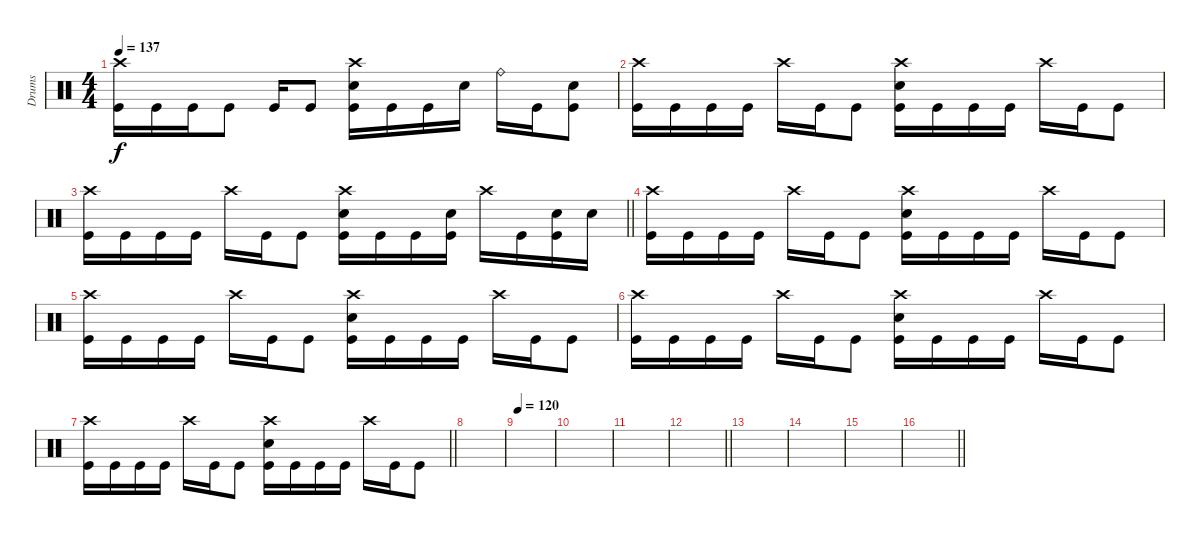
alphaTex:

\track ("Drums" "Drums") {instrument percussion}
\staff
\articulation defaults
\ts (4 4)
\tempo 137
\clef neutral
\ks c
("Crash high (hit)" "Kick (hit)").16{dy f} "Kick (hit)".16 "Kick (hit)".16 "Kick (hit)".8 "Kick (hit)".16 "Kick (hit)".8 ("Crash high (hit)" "Electric Snare (hit)" "Kick (hit)").16 "Kick (hit)".16 "Kick (hit)".16 "Electric Snare (hit)".16 "Ride (bell)".16 "Kick (hit)".16 ("Electric Snare (hit)" "Kick (hit)").8 |
("Crash high (hit)" "Kick (hit)").16 "Kick (hit)".16 "Kick (hit)".16 "Kick (hit)".16 "Crash high (hit)".16 "Kick (hit)".16 "Kick (hit)".8 ("Crash high (hit)" "Electric Snare (hit)" "Kick (hit)").16 "Kick (hit)".16 "Kick (hit)".16 "Kick (hit)".16 "Crash high (hit)".16 "Kick (hit)".16 "Kick (hit)".8 |
\barLineRight lightlight
("Crash high (hit)" "Kick (hit)").16 "Kick (hit)".16 "Kick (hit)".16 "Kick (hit)".16 "Crash high (hit)".16 "Kick (hit)".16 "Kick (hit)".8 ("Crash high (hit)" "Electric Snare (hit)" "Kick (hit)").16 "Kick (hit)".16 "Kick (hit)".16 ("Electric Snare (hit)" "Kick (hit)").16 "Crash high (hit)".16 "Kick (hit)".16 ("Electric Snare (hit)" "Kick (hit)").16 "Electric Snare (hit)".16 |
("Crash high (hit)" "Kick (hit)").16 "Kick (hit)".16 "Kick (hit)".16 "Kick (hit)".16 "Crash high (hit)".16 "Kick (hit)".16 "Kick (hit)".8 ("Crash high (hit)" "Electric Snare (hit)" "Kick (hit)").16 "Kick (hit)".16 "Kick (hit)".16 "Kick (hit)".16 "Crash high (hit)".16 "Kick (hit)".16 "Kick (hit)".8 |
("Crash high (hit)" "Kick (hit)").16 "Kick (hit)".16 "Kick (hit)".16 "Kick (hit)".16 "Crash high (hit)".16 "Kick (hit)".16 "Kick (hit)".8 ("Crash high (hit)" "Electric Snare (hit)" "Kick (hit)").16 "Kick (hit)".16 "Kick (hit)".16 "Kick (hit)".16 "Crash high (hit)".16 "Kick (hit)".16 "Kick (hit)".8 |
("Crash high (hit)" "Kick (hit)").16 "Kick (hit)".16 "Kick (hit)".16 "Kick (hit)".16 "Crash high (hit)".16 "Kick (hit)".16 "Kick (hit)".8 ("Crash high (hit)" "Electric Snare (hit)" "Kick (hit)").16 "Kick (hit)".16 "Kick (hit)".16 "Kick (hit)".16 "Crash high (hit)".16 "Kick (hit)".16 "Kick (hit)".8 |
\barLineRight lightlight
("Crash high (hit)" "Kick (hit)").16 "Kick (hit)".16 "Kick (hit)".16 "Kick (hit)".16 "Crash high (hit)".16 "Kick (hit)".16 "Kick (hit)".8 ("Crash high (hit)" "Electric Snare (hit)" "Kick (hit)").16 "Kick (hit)".16 "Kick (hit)".16 "Kick (hit)".16 "Crash high (hit)".16 "Kick (hit)".16 "Kick (hit)".8 |
|
\tempo 120
|
|
|
\barLineRight lightlight
|
|
|
|
\barLineRight lightlight
